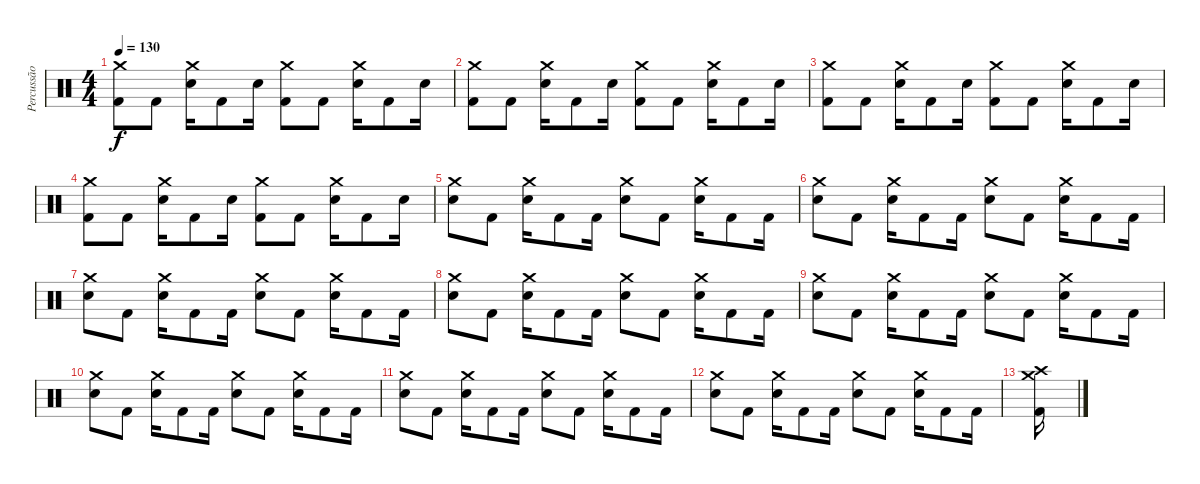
\track ("Percussão" "Percussão") {instrument percussion}
\staff {score}
\articulation defaults
\ts (4 4)
\tempo 130
\clef neutral
\ks c
("Crash medium (hit)" "Kick (hit) 2").8{dy f} "Kick (hit) 2".8 ("Crash medium (hit)" "Snare (hit) 2").16 "Kick (hit) 2".8 "Snare (hit) 2".16 ("Crash medium (hit)" "Kick (hit) 2").8 "Kick (hit) 2".8 ("Crash medium (hit)" "Snare (hit) 2").16 "Kick (hit) 2".8 "Snare (hit) 2".16 |
("Crash medium (hit)" "Kick (hit) 2").8 "Kick (hit) 2".8 ("Crash medium (hit)" "Snare (hit) 2").16 "Kick (hit) 2".8 "Snare (hit) 2".16 ("Crash medium (hit)" "Kick (hit) 2").8 "Kick (hit) 2".8 ("Crash medium (hit)" "Snare (hit) 2").16 "Kick (hit) 2".8 "Snare (hit) 2".16 |
("Crash medium (hit)" "Kick (hit) 2").8 "Kick (hit) 2".8 ("Crash medium (hit)" "Snare (hit) 2").16 "Kick (hit) 2".8 "Snare (hit) 2".16 ("Crash medium (hit)" "Kick (hit) 2").8 "Kick (hit) 2".8 ("Crash medium (hit)" "Snare (hit) 2").16 "Kick (hit) 2".8 "Snare (hit) 2".16 |
("Crash medium (hit)" "Kick (hit) 2").8 "Kick (hit) 2".8 ("Crash medium (hit)" "Snare (hit) 2").16 "Kick (hit) 2".8 "Snare (hit) 2".16 ("Crash medium (hit)" "Kick (hit) 2").8 "Kick (hit) 2".8 ("Crash medium (hit)" "Snare (hit) 2").16 "Kick (hit) 2".8 "Snare (hit) 2".16 |
("Crash medium (hit)" "Snare (hit) 2").8 "Kick (hit) 2".8 ("Crash medium (hit)" "Snare (hit) 2").16 "Kick (hit) 2".8 "Kick (hit) 2".16 ("Crash medium (hit)" "Snare (hit) 2").8 "Kick (hit) 2".8 ("Crash medium (hit)" "Snare (hit) 2").16 "Kick (hit) 2".8 "Kick (hit) 2".16 |
("Crash medium (hit)" "Snare (hit) 2").8 "Kick (hit) 2".8 ("Crash medium (hit)" "Snare (hit) 2").16 "Kick (hit) 2".8 "Kick (hit) 2".16 ("Crash medium (hit)" "Snare (hit) 2").8 "Kick (hit) 2".8 ("Crash medium (hit)" "Snare (hit) 2").16 "Kick (hit) 2".8 "Kick (hit) 2".16 |
("Crash medium (hit)" "Snare (hit) 2").8 "Kick (hit) 2".8 ("Crash medium (hit)" "Snare (hit) 2").16 "Kick (hit) 2".8 "Kick (hit) 2".16 ("Crash medium (hit)" "Snare (hit) 2").8 "Kick (hit) 2".8 ("Crash medium (hit)" "Snare (hit) 2").16 "Kick (hit) 2".8 "Kick (hit) 2".16 |
("Crash medium (hit)" "Snare (hit) 2").8 "Kick (hit) 2".8 ("Crash medium (hit)" "Snare (hit) 2").16 "Kick (hit) 2".8 "Kick (hit) 2".16 ("Crash medium (hit)" "Snare (hit) 2").8 "Kick (hit) 2".8 ("Crash medium (hit)" "Snare (hit) 2").16 "Kick (hit) 2".8 "Kick (hit) 2".16 |
("Crash medium (hit)" "Snare (hit) 2").8 "Kick (hit) 2".8 ("Crash medium (hit)" "Snare (hit) 2").16 "Kick (hit) 2".8 "Kick (hit) 2".16 ("Crash medium (hit)" "Snare (hit) 2").8 "Kick (hit) 2".8 ("Crash medium (hit)" "Snare (hit) 2").16 "Kick (hit) 2".8 "Kick (hit) 2".16 |
("Crash medium (hit)" "Snare (hit) 2").8 "Kick (hit) 2".8 ("Crash medium (hit)" "Snare (hit) 2").16 "Kick (hit) 2".8 "Kick (hit) 2".16 ("Crash medium (hit)" "Snare (hit) 2").8 "Kick (hit) 2".8 ("Crash medium (hit)" "Snare (hit) 2").16 "Kick (hit) 2".8 "Kick (hit) 2".16 |
("Crash medium (hit)" "Snare (hit) 2").8 "Kick (hit) 2".8 ("Crash medium (hit)" "Snare (hit) 2").16 "Kick (hit) 2".8 "Kick (hit) 2".16 ("Crash medium (hit)" "Snare (hit) 2").8 "Kick (hit) 2".8 ("Crash medium (hit)" "Snare (hit) 2").16 "Kick (hit) 2".8 "Kick (hit) 2".16 |
("Crash medium (hit)" "Snare (hit) 2").8 "Kick (hit) 2".8 ("Crash medium (hit)" "Snare (hit) 2").16 "Kick (hit) 2".8 "Kick (hit) 2".16 ("Crash medium (hit)" "Snare (hit) 2").8 "Kick (hit) 2".8 ("Crash medium (hit)" "Snare (hit) 2").16 "Kick (hit) 2".8 "Kick (hit) 2".16 |
("Crash medium (hit)" "Crash high (hit)" "Kick (hit) 2").16
